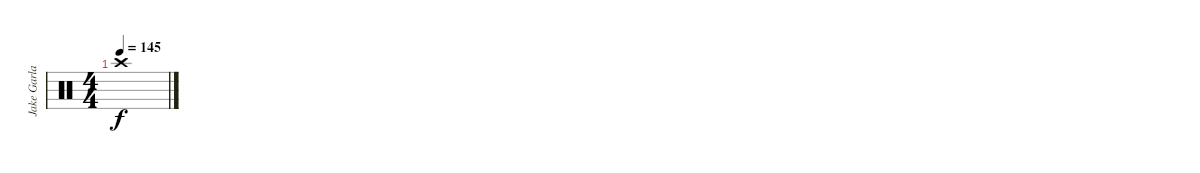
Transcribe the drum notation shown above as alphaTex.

\track ("Jake Garland" "Jake Garla") {instrument percussion}
\staff {score}
\articulation defaults
\ts (4 4)
\tempo 145
\clef neutral
\ks c "Crash high (hit)".1{dy f}
